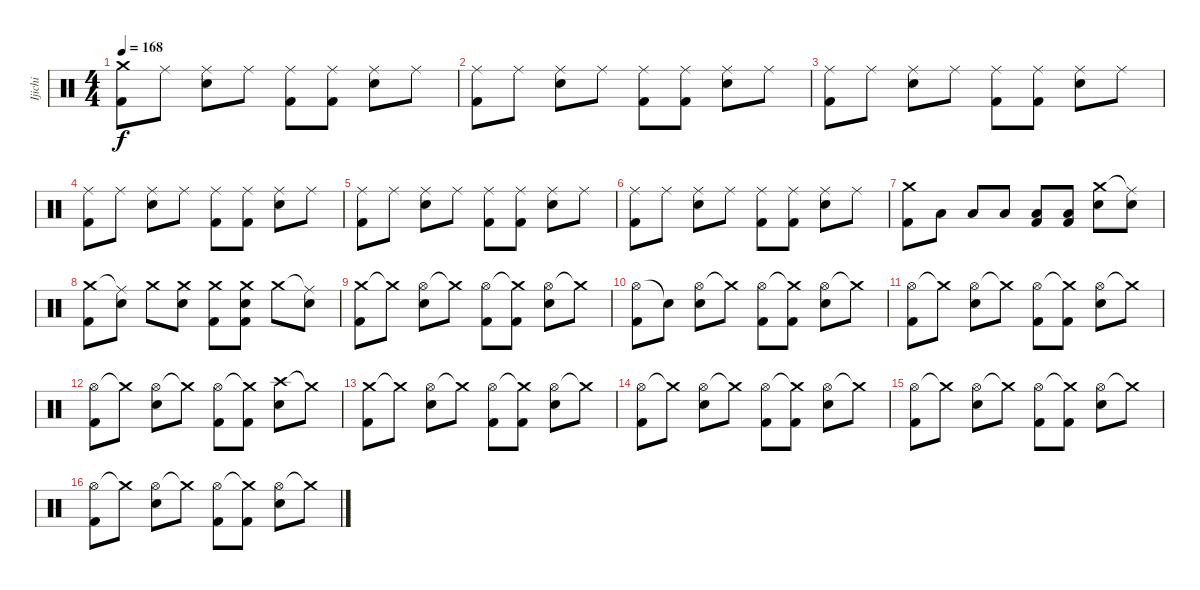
\track ("Ijichi" "Ijichi") {instrument percussion}
\staff {score}
\articulation defaults
\ts (4 4)
\tempo 168
\clef neutral
\ks c
("Crash medium (hit)" "Kick (hit) 2").8{dy f} "Ride (middle)".8 ("Ride (middle)" "Electric Snare (hit)").8 "Ride (middle)".8 ("Ride (middle)" "Kick (hit) 2").8 ("Ride (middle)" "Kick (hit) 2").8 ("Ride (middle)" "Electric Snare (hit)").8 "Ride (middle)".8 |
("Ride (middle)" "Kick (hit) 2").8 "Ride (middle)".8 ("Ride (middle)" "Electric Snare (hit)").8 "Ride (middle)".8 ("Ride (middle)" "Kick (hit) 2").8 ("Ride (middle)" "Kick (hit) 2").8 ("Ride (middle)" "Electric Snare (hit)").8 "Ride (middle)".8 |
("Ride (middle)" "Kick (hit) 2").8 "Ride (middle)".8 ("Ride (middle)" "Electric Snare (hit)").8 "Ride (middle)".8 ("Ride (middle)" "Kick (hit) 2").8 ("Ride (middle)" "Kick (hit) 2").8 ("Ride (middle)" "Electric Snare (hit)").8 "Ride (middle)".8 |
("Ride (middle)" "Kick (hit) 2").8 "Ride (middle)".8 ("Ride (middle)" "Electric Snare (hit)").8 "Ride (middle)".8 ("Ride (middle)" "Kick (hit) 2").8 ("Ride (middle)" "Kick (hit) 2").8 ("Ride (middle)" "Electric Snare (hit)").8 "Ride (middle)".8 |
("Ride (middle)" "Kick (hit) 2").8 "Ride (middle)".8 ("Ride (middle)" "Electric Snare (hit)").8 "Ride (middle)".8 ("Ride (middle)" "Kick (hit) 2").8 ("Ride (middle)" "Kick (hit) 2").8 ("Ride (middle)" "Electric Snare (hit)").8 "Ride (middle)".8 |
("Ride (middle)" "Kick (hit) 2").8 "Ride (middle)".8 ("Ride (middle)" "Electric Snare (hit)").8 "Ride (middle)".8 ("Ride (middle)" "Kick (hit) 2").8 ("Ride (middle)" "Kick (hit) 2").8 ("Ride (middle)" "Electric Snare (hit)").8 "Ride (middle)".8 |
("Crash medium (hit)" "Kick (hit) 2").8 "Low Floor Tom (hit)".8 "Low Floor Tom (hit)".8 "Low Floor Tom (hit)".8 ("Low Floor Tom (hit)" "Kick (hit) 2").8 ("Low Floor Tom (hit)" "Kick (hit) 2").8 ("Crash medium (hit)" "Electric Snare (hit)").8 ("Ride (middle)"{t} "Electric Snare (hit)").8 |
("Crash medium (hit)" "Kick (hit) 2").8 ("Ride (middle)"{t} "Electric Snare (hit)").8 "Crash medium (hit)".8 ("Crash medium (hit)" "Electric Snare (hit)").8 ("Crash medium (hit)" "Kick (hit) 2").8 ("Crash medium (hit)" "Electric Snare (hit)" "Kick (hit) 2").8 "Crash medium (hit)".8 ("Ride (middle)"{t} "Electric Snare (hit)").8 |
("Crash medium (hit)" "Kick (hit) 2").8 "Crash medium (hit)"{t}.8 ("Hi-Hat (open)" "Electric Snare (hit)").8 "Crash medium (hit)"{t}.8 ("Hi-Hat (open)" "Kick (hit) 2").8 ("Crash medium (hit)"{t} "Kick (hit) 2").8 ("Hi-Hat (open)" "Electric Snare (hit)").8 "Crash medium (hit)"{t}.8 |
("Hi-Hat (open)" "Kick (hit) 2").8 "Snare (hit)"{t}.8 ("Hi-Hat (open)" "Electric Snare (hit)").8 "Crash medium (hit)"{t}.8 ("Hi-Hat (open)" "Kick (hit) 2").8 ("Crash medium (hit)"{t} "Kick (hit) 2").8 ("Hi-Hat (open)" "Electric Snare (hit)").8 "Crash medium (hit)"{t}.8 |
("Hi-Hat (open)" "Kick (hit) 2").8 "Crash medium (hit)"{t}.8 ("Hi-Hat (open)" "Electric Snare (hit)").8 "Crash medium (hit)"{t}.8 ("Hi-Hat (open)" "Kick (hit) 2").8 ("Crash medium (hit)"{t} "Kick (hit) 2").8 ("Hi-Hat (open)" "Electric Snare (hit)").8 "Crash medium (hit)"{t}.8 |
("Hi-Hat (open)" "Kick (hit) 2").8 "Crash medium (hit)"{t}.8 ("Hi-Hat (open)" "Electric Snare (hit)").8 "Crash medium (hit)"{t}.8 ("Hi-Hat (open)" "Kick (hit) 2").8 ("Crash medium (hit)"{t} "Kick (hit) 2").8 ("Crash high (hit)" "Electric Snare (hit)").8 "Crash medium (hit)"{t}.8 |
("Crash medium (hit)" "Kick (hit) 2").8 "Crash medium (hit)"{t}.8 ("Hi-Hat (open)" "Electric Snare (hit)").8 "Crash medium (hit)"{t}.8 ("Hi-Hat (open)" "Kick (hit) 2").8 ("Crash medium (hit)"{t} "Kick (hit) 2").8 ("Hi-Hat (open)" "Electric Snare (hit)").8 "Crash medium (hit)"{t}.8 |
("Hi-Hat (open)" "Kick (hit) 2").8 "Crash medium (hit)"{t}.8 ("Hi-Hat (open)" "Electric Snare (hit)").8 "Crash medium (hit)"{t}.8 ("Hi-Hat (open)" "Kick (hit) 2").8 ("Crash medium (hit)"{t} "Kick (hit) 2").8 ("Hi-Hat (open)" "Electric Snare (hit)").8 "Crash medium (hit)"{t}.8 |
("Hi-Hat (open)" "Kick (hit) 2").8 "Crash medium (hit)"{t}.8 ("Hi-Hat (open)" "Electric Snare (hit)").8 "Crash medium (hit)"{t}.8 ("Hi-Hat (open)" "Kick (hit) 2").8 ("Crash medium (hit)"{t} "Kick (hit) 2").8 ("Hi-Hat (open)" "Electric Snare (hit)").8 "Crash medium (hit)"{t}.8 |
("Hi-Hat (open)" "Kick (hit) 2").8 "Crash medium (hit)"{t}.8 ("Hi-Hat (open)" "Electric Snare (hit)").8 "Crash medium (hit)"{t}.8 ("Hi-Hat (open)" "Kick (hit) 2").8 ("Crash medium (hit)"{t} "Kick (hit) 2").8 ("Hi-Hat (open)" "Electric Snare (hit)").8 "Crash medium (hit)"{t}.8
